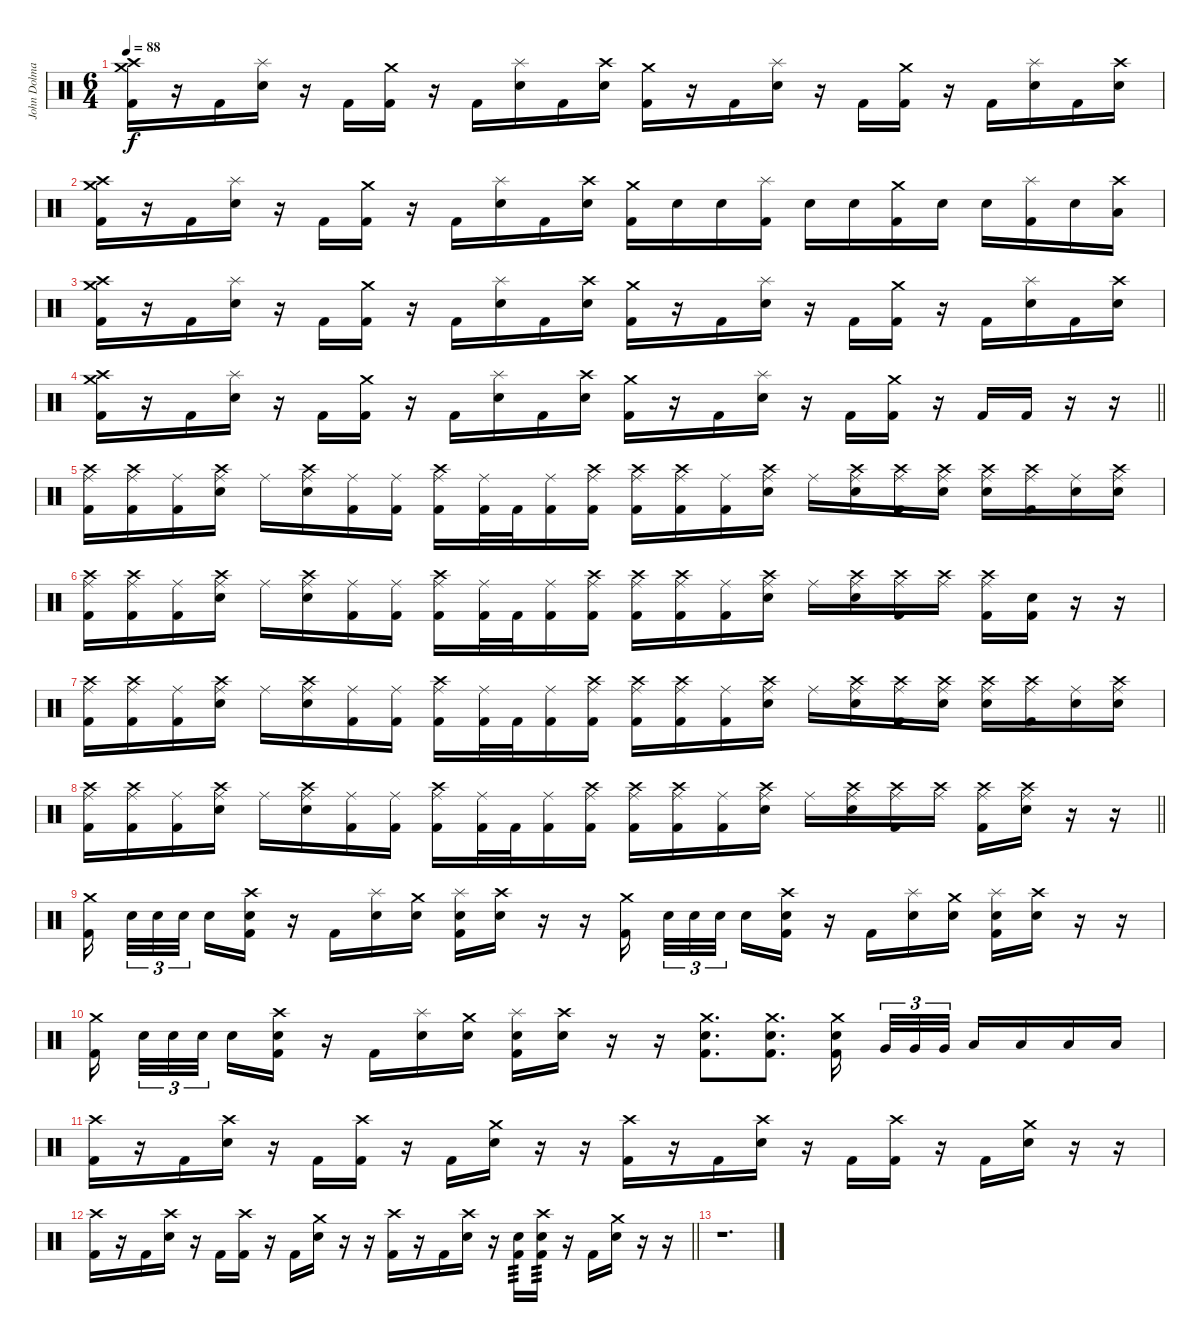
\track ("John Dolmayan (drums)" "John Dolma") {instrument percussion}
\staff
\articulation defaults
\ts (6 4)
\tempo 88
\clef neutral
\ks c
("Crash medium (hit)" "Crash high (hit)" "Kick (hit) 2").16{dy f} r.16 "Kick (hit) 2".16 ("Splash (hit)" "Electric Snare (hit)").16 r.16 "Kick (hit) 2".16 ("Crash medium (hit)" "Kick (hit) 2").16 r.16 "Kick (hit) 2".16 ("Splash (hit)" "Electric Snare (hit)").16 "Kick (hit) 2".16 ("Crash high (hit)" "Electric Snare (hit)").16 ("Crash medium (hit)" "Kick (hit) 2").16 r.16 "Kick (hit) 2".16 ("Splash (hit)" "Electric Snare (hit)").16 r.16 "Kick (hit) 2".16 ("Crash medium (hit)" "Kick (hit) 2").16 r.16 "Kick (hit) 2".16 ("Splash (hit)" "Electric Snare (hit)").16 "Kick (hit) 2".16 ("Crash high (hit)" "Electric Snare (hit)").16 |
("Crash medium (hit)" "Crash high (hit)" "Kick (hit) 2").16 r.16 "Kick (hit) 2".16 ("Splash (hit)" "Electric Snare (hit)").16 r.16 "Kick (hit) 2".16 ("Crash medium (hit)" "Kick (hit) 2").16 r.16 "Kick (hit) 2".16 ("Splash (hit)" "Electric Snare (hit)").16 "Kick (hit) 2".16 ("Crash high (hit)" "Electric Snare (hit)").16 ("Crash medium (hit)" "Kick (hit) 2").16 "Electric Snare (hit)".16 "Electric Snare (hit)".16 ("Splash (hit)" "Kick (hit) 2").16 "Electric Snare (hit)".16 "Electric Snare (hit)".16 ("Crash medium (hit)" "Kick (hit) 2").16 "Electric Snare (hit)".16 "Electric Snare (hit)".16 ("Splash (hit)" "Kick (hit) 2").16 "Electric Snare (hit)".16 ("Crash high (hit)" "Low Floor Tom (hit)").16 |
("Crash medium (hit)" "Crash high (hit)" "Kick (hit) 2").16 r.16 "Kick (hit) 2".16 ("Splash (hit)" "Electric Snare (hit)").16 r.16 "Kick (hit) 2".16 ("Crash medium (hit)" "Kick (hit) 2").16 r.16 "Kick (hit) 2".16 ("Splash (hit)" "Electric Snare (hit)").16 "Kick (hit) 2".16 ("Crash high (hit)" "Electric Snare (hit)").16 ("Crash medium (hit)" "Kick (hit) 2").16 r.16 "Kick (hit) 2".16 ("Splash (hit)" "Electric Snare (hit)").16 r.16 "Kick (hit) 2".16 ("Crash medium (hit)" "Kick (hit) 2").16 r.16 "Kick (hit) 2".16 ("Splash (hit)" "Electric Snare (hit)").16 "Kick (hit) 2".16 ("Crash high (hit)" "Electric Snare (hit)").16 |
\barLineRight lightlight
("Crash medium (hit)" "Crash high (hit)" "Kick (hit) 2").16 r.16 "Kick (hit) 2".16 ("Splash (hit)" "Electric Snare (hit)").16 r.16 "Kick (hit) 2".16 ("Crash medium (hit)" "Kick (hit) 2").16 r.16 "Kick (hit) 2".16 ("Splash (hit)" "Electric Snare (hit)").16 "Kick (hit) 2".16 ("Crash high (hit)" "Electric Snare (hit)").16 ("Crash medium (hit)" "Kick (hit) 2").16 r.16 "Kick (hit) 2".16 ("Splash (hit)" "Electric Snare (hit)").16 r.16 "Kick (hit) 2".16 ("Crash medium (hit)" "Kick (hit) 2").16 r.16 "Kick (hit) 2".16 "Kick (hit) 2".16 r.16 r.16 |
("Crash high (hit)" "Ride (middle)" "Kick (hit) 2").16 ("Crash high (hit)" "Ride (middle)" "Kick (hit) 2").16 ("Ride (middle)" "Kick (hit) 2").16 ("Crash high (hit)" "Ride (middle)" "Electric Snare (hit)").16 "Ride (middle)".16 ("Crash high (hit)" "Ride (middle)" "Electric Snare (hit)").16 ("Ride (middle)" "Kick (hit) 2").16 ("Ride (middle)" "Kick (hit) 2").16 ("Crash high (hit)" "Ride (middle)" "Kick (hit) 2").16 ("Ride (middle)" "Kick (hit) 2").32 "Kick (hit) 2".32 ("Ride (middle)" "Kick (hit) 2").16 ("Crash high (hit)" "Ride (middle)" "Kick (hit) 2").16 ("Crash high (hit)" "Ride (middle)" "Kick (hit) 2").16 ("Crash high (hit)" "Ride (middle)" "Kick (hit) 2").16 ("Ride (middle)" "Kick (hit) 2").16 ("Crash high (hit)" "Ride (middle)" "Electric Snare (hit)").16 "Ride (middle)".16 ("Crash high (hit)" "Ride (middle)" "Electric Snare (hit)").16 ("Crash high (hit)" "Ride (middle)" "Kick (hit) 2").16 ("Crash high (hit)" "Ride (middle)" "Electric Snare (hit)").16 ("Crash high (hit)" "Ride (middle)" "Electric Snare (hit)").16 ("Crash high (hit)" "Ride (middle)" "Kick (hit) 2").16 ("Ride (middle)" "Electric Snare (hit)").16 ("Crash high (hit)" "Ride (middle)" "Electric Snare (hit)").16 |
("Crash high (hit)" "Ride (middle)" "Kick (hit) 2").16 ("Crash high (hit)" "Ride (middle)" "Kick (hit) 2").16 ("Ride (middle)" "Kick (hit) 2").16 ("Crash high (hit)" "Ride (middle)" "Electric Snare (hit)").16 "Ride (middle)".16 ("Crash high (hit)" "Ride (middle)" "Electric Snare (hit)").16 ("Ride (middle)" "Kick (hit) 2").16 ("Ride (middle)" "Kick (hit) 2").16 ("Crash high (hit)" "Ride (middle)" "Kick (hit) 2").16 ("Ride (middle)" "Kick (hit) 2").32 "Kick (hit) 2".32 ("Ride (middle)" "Kick (hit) 2").16 ("Crash high (hit)" "Ride (middle)" "Kick (hit) 2").16 ("Crash high (hit)" "Ride (middle)" "Kick (hit) 2").16 ("Crash high (hit)" "Ride (middle)" "Kick (hit) 2").16 ("Ride (middle)" "Kick (hit) 2").16 ("Crash high (hit)" "Ride (middle)" "Electric Snare (hit)").16 "Ride (middle)".16 ("Crash high (hit)" "Ride (middle)" "Electric Snare (hit)").16 ("Crash high (hit)" "Ride (middle)" "Kick (hit) 2").16 ("Crash high (hit)" "Ride (middle)").16 ("Crash high (hit)" "Ride (middle)" "Kick (hit) 2").16 ("Electric Snare (hit)" "Kick (hit) 2").16 r.16 r.16 |
("Crash high (hit)" "Ride (middle)" "Kick (hit) 2").16 ("Crash high (hit)" "Ride (middle)" "Kick (hit) 2").16 ("Ride (middle)" "Kick (hit) 2").16 ("Crash high (hit)" "Ride (middle)" "Electric Snare (hit)").16 "Ride (middle)".16 ("Crash high (hit)" "Ride (middle)" "Electric Snare (hit)").16 ("Ride (middle)" "Kick (hit) 2").16 ("Ride (middle)" "Kick (hit) 2").16 ("Crash high (hit)" "Ride (middle)" "Kick (hit) 2").16 ("Ride (middle)" "Kick (hit) 2").32 "Kick (hit) 2".32 ("Ride (middle)" "Kick (hit) 2").16 ("Crash high (hit)" "Ride (middle)" "Kick (hit) 2").16 ("Crash high (hit)" "Ride (middle)" "Kick (hit) 2").16 ("Crash high (hit)" "Ride (middle)" "Kick (hit) 2").16 ("Ride (middle)" "Kick (hit) 2").16 ("Crash high (hit)" "Ride (middle)" "Electric Snare (hit)").16 "Ride (middle)".16 ("Crash high (hit)" "Ride (middle)" "Electric Snare (hit)").16 ("Crash high (hit)" "Ride (middle)" "Kick (hit) 2").16 ("Crash high (hit)" "Ride (middle)" "Electric Snare (hit)").16 ("Crash high (hit)" "Ride (middle)" "Electric Snare (hit)").16 ("Crash high (hit)" "Ride (middle)" "Kick (hit) 2").16 ("Ride (middle)" "Electric Snare (hit)").16 ("Crash high (hit)" "Ride (middle)" "Electric Snare (hit)").16 |
\barLineRight lightlight
("Crash high (hit)" "Ride (middle)" "Kick (hit) 2").16 ("Crash high (hit)" "Ride (middle)" "Kick (hit) 2").16 ("Ride (middle)" "Kick (hit) 2").16 ("Crash high (hit)" "Ride (middle)" "Electric Snare (hit)").16 "Ride (middle)".16 ("Crash high (hit)" "Ride (middle)" "Electric Snare (hit)").16 ("Ride (middle)" "Kick (hit) 2").16 ("Ride (middle)" "Kick (hit) 2").16 ("Crash high (hit)" "Ride (middle)" "Kick (hit) 2").16 ("Ride (middle)" "Kick (hit) 2").32 "Kick (hit) 2".32 ("Ride (middle)" "Kick (hit) 2").16 ("Crash high (hit)" "Ride (middle)" "Kick (hit) 2").16 ("Crash high (hit)" "Ride (middle)" "Kick (hit) 2").16 ("Crash high (hit)" "Ride (middle)" "Kick (hit) 2").16 ("Ride (middle)" "Kick (hit) 2").16 ("Crash high (hit)" "Ride (middle)" "Electric Snare (hit)").16 "Ride (middle)".16 ("Crash high (hit)" "Ride (middle)" "Electric Snare (hit)").16 ("Crash high (hit)" "Ride (middle)" "Kick (hit) 2").16 ("Crash high (hit)" "Ride (middle)").16 ("Crash high (hit)" "Ride (middle)" "Kick (hit) 2").16 ("Crash high (hit)" "Ride (middle)" "Electric Snare (hit)").16 r.16 r.16 |
("Crash medium (hit)" "Kick (hit) 2").16{beam splitsecondary} "Electric Snare (hit)".32{tu (3 2)} "Electric Snare (hit)".32{tu (3 2)} "Electric Snare (hit)".32{tu (3 2) beam splitsecondary} "Electric Snare (hit)".16 ("Crash high (hit)" "Electric Snare (hit)" "Kick (hit) 2").16 r.16 "Kick (hit) 2".16 ("Splash (hit)" "Electric Snare (hit)").16 ("Crash medium (hit)" "Electric Snare (hit)").16 ("Splash (hit)" "Electric Snare (hit)" "Kick (hit) 2").16 ("Crash high (hit)" "Electric Snare (hit)").16 r.16 r.16 ("Crash medium (hit)" "Kick (hit) 2").16{beam splitsecondary} "Electric Snare (hit)".32{tu (3 2)} "Electric Snare (hit)".32{tu (3 2)} "Electric Snare (hit)".32{tu (3 2) beam splitsecondary} "Electric Snare (hit)".16 ("Crash high (hit)" "Electric Snare (hit)" "Kick (hit) 2").16 r.16 "Kick (hit) 2".16 ("Splash (hit)" "Electric Snare (hit)").16 ("Crash medium (hit)" "Electric Snare (hit)").16 ("Splash (hit)" "Electric Snare (hit)" "Kick (hit) 2").16 ("Crash high (hit)" "Electric Snare (hit)").16 r.16 r.16 |
("Crash medium (hit)" "Kick (hit) 2").16{beam splitsecondary} "Electric Snare (hit)".32{tu (3 2)} "Electric Snare (hit)".32{tu (3 2)} "Electric Snare (hit)".32{tu (3 2) beam splitsecondary} "Electric Snare (hit)".16 ("Crash high (hit)" "Electric Snare (hit)" "Kick (hit) 2").16 r.16 "Kick (hit) 2".16 ("Splash (hit)" "Electric Snare (hit)").16 ("Crash medium (hit)" "Electric Snare (hit)").16 ("Splash (hit)" "Electric Snare (hit)" "Kick (hit) 2").16 ("Crash high (hit)" "Electric Snare (hit)").16 r.16 r.16 ("Crash medium (hit)" "Electric Snare (hit)" "Kick (hit) 2").8{d} ("Crash medium (hit)" "Electric Snare (hit)" "Kick (hit) 2").8{d} ("Crash medium (hit)" "Electric Snare (hit)" "Kick (hit) 2").16{beam splitsecondary} "Very Low Tom (hit)".32{tu (3 2)} "Very Low Tom (hit)".32{tu (3 2)} "Very Low Tom (hit)".32{tu (3 2) beam splitsecondary} "Low Tom (hit)".16 "Low Tom (hit)".16 "Low Floor Tom (hit)".16 "Low Floor Tom (hit)".16 |
("Crash high (hit)" "Kick (hit) 2").16 r.16 "Kick (hit) 2".16 ("Crash high (hit)" "Electric Snare (hit)").16 r.16 "Kick (hit) 2".16 ("Crash high (hit)" "Kick (hit) 2").16 r.16 "Kick (hit) 2".16 ("Crash medium (hit)" "Electric Snare (hit)").16 r.16 r.16 ("Crash high (hit)" "Kick (hit) 2").16 r.16 "Kick (hit) 2".16 ("Crash high (hit)" "Electric Snare (hit)").16 r.16 "Kick (hit) 2".16 ("Crash high (hit)" "Kick (hit) 2").16 r.16 "Kick (hit) 2".16 ("Crash medium (hit)" "Electric Snare (hit)").16 r.16 r.16 |
\barLineRight lightlight
("Crash high (hit)" "Kick (hit) 2").16 r.16 "Kick (hit) 2".16 ("Crash high (hit)" "Electric Snare (hit)").16 r.16 "Kick (hit) 2".16 ("Crash high (hit)" "Kick (hit) 2").16 r.16 "Kick (hit) 2".16 ("Crash medium (hit)" "Electric Snare (hit)").16 r.16 r.16 ("Crash high (hit)" "Kick (hit) 2").16 r.16 "Kick (hit) 2".16 ("Crash high (hit)" "Electric Snare (hit)").16 r.16 ("Electric Snare (hit)" "Kick (hit) 2").16{tp 3} ("Crash high (hit)" "Electric Snare (hit)" "Kick (hit) 2").16{tp 3} r.16 "Kick (hit) 2".16 ("Crash medium (hit)" "Electric Snare (hit)").16 r.16 r.16 |
r.1{d}
